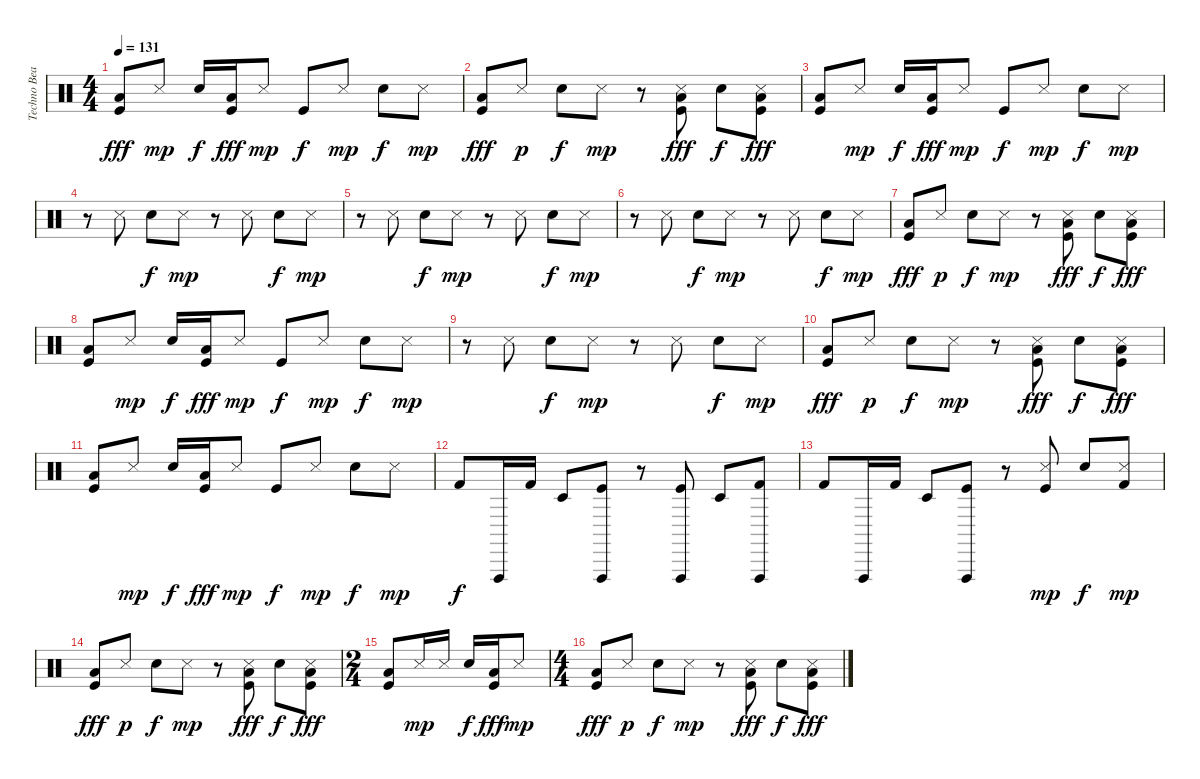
\track ("Techno Beat" "Techno Bea") {instrument percussion}
\staff {score}
\articulation defaults
\ts (4 4)
\tempo 131
\clef neutral
\ks c
("Low Tom (hit)" "Kick (hit)").8{dy fff} "Snare (side stick) 3".8{dy mp} "Electric Snare (hit)".16{dy f} ("Low Tom (hit)" "Kick (hit)").16{dy fff} "Snare (side stick) 3".8{dy mp} "Kick (hit)".8{dy f} "Snare (side stick) 3".8{dy mp} "Electric Snare (hit)".8{dy f} "Snare (side stick) 3".8{dy mp} |
("Low Tom (hit)" "Kick (hit)").8{dy fff} "Snare (side stick) 3".8{dy p} "Electric Snare (hit)".8{dy f} "Snare (side stick) 3".8{dy mp} r.8 ("Snare (side stick) 3" "Low Tom (hit)" "Kick (hit)").8{dy fff} "Electric Snare (hit)".8{dy f} ("Snare (side stick) 3" "Low Tom (hit)" "Kick (hit)").8{dy fff} |
("Low Tom (hit)" "Kick (hit)").8 "Snare (side stick) 3".8{dy mp} "Electric Snare (hit)".16{dy f} ("Low Tom (hit)" "Kick (hit)").16{dy fff} "Snare (side stick) 3".8{dy mp} "Kick (hit)".8{dy f} "Snare (side stick) 3".8{dy mp} "Electric Snare (hit)".8{dy f} "Snare (side stick) 3".8{dy mp} |
r.8 "Snare (side stick) 3".8 "Electric Snare (hit)".8{dy f} "Snare (side stick) 3".8{dy mp} r.8 "Snare (side stick) 3".8 "Electric Snare (hit)".8{dy f} "Snare (side stick) 3".8{dy mp} |
r.8 "Snare (side stick) 3".8 "Electric Snare (hit)".8{dy f} "Snare (side stick) 3".8{dy mp} r.8 "Snare (side stick) 3".8 "Electric Snare (hit)".8{dy f} "Snare (side stick) 3".8{dy mp} |
r.8 "Snare (side stick) 3".8 "Electric Snare (hit)".8{dy f} "Snare (side stick) 3".8{dy mp} r.8 "Snare (side stick) 3".8 "Electric Snare (hit)".8{dy f} "Snare (side stick) 3".8{dy mp} |
("Low Tom (hit)" "Kick (hit)").8{dy fff} "Snare (side stick) 3".8{dy p} "Electric Snare (hit)".8{dy f} "Snare (side stick) 3".8{dy mp} r.8 ("Snare (side stick) 3" "Low Tom (hit)" "Kick (hit)").8{dy fff} "Electric Snare (hit)".8{dy f} ("Snare (side stick) 3" "Low Tom (hit)" "Kick (hit)").8{dy fff} |
("Low Tom (hit)" "Kick (hit)").8 "Snare (side stick) 3".8{dy mp} "Electric Snare (hit)".16{dy f} ("Low Tom (hit)" "Kick (hit)").16{dy fff} "Snare (side stick) 3".8{dy mp} "Kick (hit)".8{dy f} "Snare (side stick) 3".8{dy mp} "Electric Snare (hit)".8{dy f} "Snare (side stick) 3".8{dy mp} |
r.8 "Snare (side stick) 3".8 "Electric Snare (hit)".8{dy f} "Snare (side stick) 3".8{dy mp} r.8 "Snare (side stick) 3".8 "Electric Snare (hit)".8{dy f} "Snare (side stick) 3".8{dy mp} |
("Low Tom (hit)" "Kick (hit)").8{dy fff} "Snare (side stick) 3".8{dy p} "Electric Snare (hit)".8{dy f} "Snare (side stick) 3".8{dy mp} r.8 ("Snare (side stick) 3" "Low Tom (hit)" "Kick (hit)").8{dy fff} "Electric Snare (hit)".8{dy f} ("Snare (side stick) 3" "Low Tom (hit)" "Kick (hit)").8{dy fff} |
("Low Tom (hit)" "Kick (hit)").8 "Snare (side stick) 3".8{dy mp} "Electric Snare (hit)".16{dy f} ("Low Tom (hit)" "Kick (hit)").16{dy fff} "Snare (side stick) 3".8{dy mp} "Kick (hit)".8{dy f} "Snare (side stick) 3".8{dy mp} "Electric Snare (hit)".8{dy f} "Snare (side stick) 3".8{dy mp} |
"Kick (hit) 2".8{dy f} "Vibraslap (hit)".16 "Kick (hit) 2".16 "Timbale low (hit)".8 ("Vibraslap (hit)" "Kick (hit)").8 r.8 ("Vibraslap (hit)" "Kick (hit)").8 "Timbale low (hit)".8 ("Vibraslap (hit)" "Kick (hit) 2").8 |
"Kick (hit) 2".8 "Vibraslap (hit)".16 "Kick (hit) 2".16 "Timbale low (hit)".8 ("Vibraslap (hit)" "Kick (hit)").8 r.8 ("Snare (side stick) 3" "Kick (hit)").8{dy mp} "Electric Snare (hit)".8{dy f} ("Snare (side stick) 3" "Kick (hit) 2").8{dy mp} |
("Low Tom (hit)" "Kick (hit)").8{dy fff} "Snare (side stick) 3".8{dy p} "Electric Snare (hit)".8{dy f} "Snare (side stick) 3".8{dy mp} r.8 ("Snare (side stick) 3" "Low Tom (hit)" "Kick (hit)").8{dy fff} "Electric Snare (hit)".8{dy f} ("Snare (side stick) 3" "Low Tom (hit)" "Kick (hit)").8{dy fff} |
\ts (2 4)
("Low Tom (hit)" "Kick (hit)").8 "Snare (side stick) 3".16{dy mp} "Snare (side stick) 3".16 "Electric Snare (hit)".16{dy f} ("Low Tom (hit)" "Kick (hit)").16{dy fff} "Snare (side stick) 3".8{dy mp} |
\ts (4 4)
("Low Tom (hit)" "Kick (hit)").8{dy fff} "Snare (side stick) 3".8{dy p} "Electric Snare (hit)".8{dy f} "Snare (side stick) 3".8{dy mp} r.8 ("Snare (side stick) 3" "Low Tom (hit)" "Kick (hit)").8{dy fff} "Electric Snare (hit)".8{dy f} ("Snare (side stick) 3" "Low Tom (hit)" "Kick (hit)").8{dy fff}
